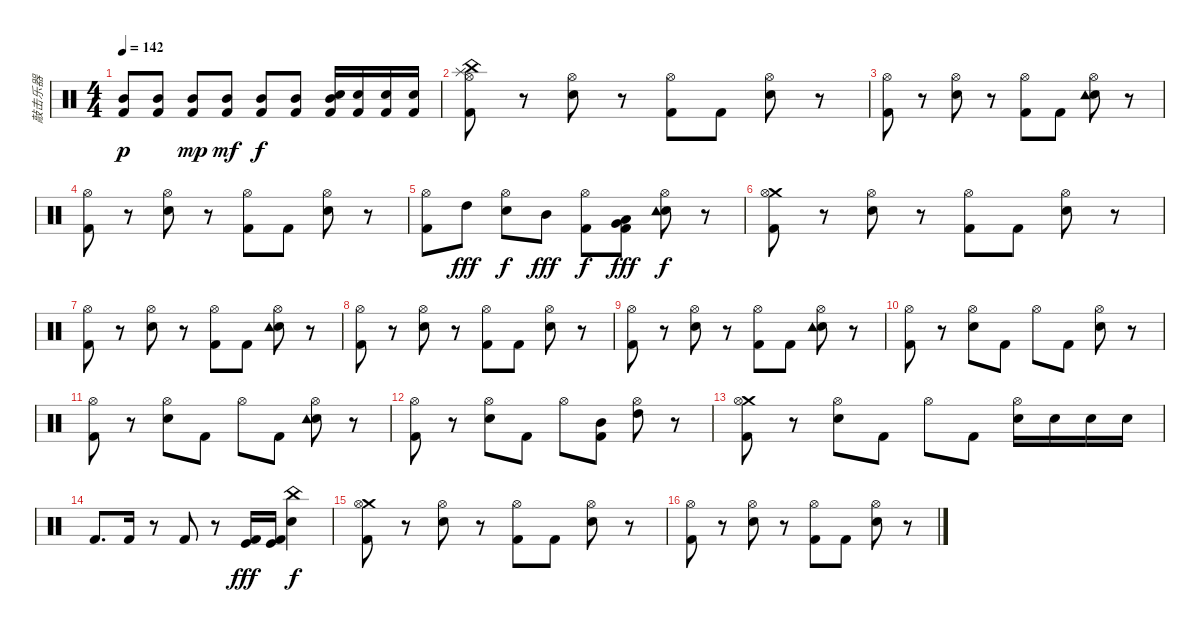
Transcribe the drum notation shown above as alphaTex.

\track ("敲击乐器" "敲击乐器") {instrument percussion}
\staff {score}
\articulation defaults
\ts (4 4)
\tempo 142
\clef neutral
\ks c
("Mid Tom (hit)" "Kick (hit) 2").8{dy p} ("Mid Tom (hit)" "Kick (hit) 2").8 ("Mid Tom (hit)" "Kick (hit) 2").8{dy mp} ("Mid Tom (hit)" "Kick (hit) 2").8{dy mf} ("Mid Tom (hit)" "Kick (hit) 2").8{dy f} ("Mid Tom (hit)" "Kick (hit) 2").8 ("Mid Tom (hit)" "Snare (hit) 2" "Kick (hit) 2").16 ("Snare (hit) 2" "Kick (hit) 2").16 ("Snare (hit) 2" "Kick (hit) 2").16 ("Snare (hit) 2" "Kick (hit) 2").16 |
("China (hit)" "Splash (hit)" "Hi-Hat (open)" "Kick (hit) 2").8 r.8 ("Snare (hit) 2" "Hi-Hat (open)").8 r.8 ("Hi-Hat (open)" "Kick (hit) 2").8 "Kick (hit) 2".8 ("Snare (hit) 2" "Hi-Hat (open)").8 r.8 |
("Hi-Hat (open)" "Kick (hit) 2").8 r.8 ("Snare (hit) 2" "Hi-Hat (open)").8 r.8 ("Hi-Hat (open)" "Kick (hit) 2").8 "Kick (hit) 2".8 ("Snare (hit) 2" "Tambourine (hit)" "Hi-Hat (open)").8 r.8 |
("Hi-Hat (open)" "Kick (hit) 2").8 r.8 ("Snare (hit) 2" "Hi-Hat (open)").8 r.8 ("Hi-Hat (open)" "Kick (hit) 2").8 "Kick (hit) 2".8 ("Snare (hit) 2" "Hi-Hat (open)").8 r.8 |
("Hi-Hat (open)" "Kick (hit) 2").8 "High Tom (hit)".8{dy fff} ("Snare (hit) 2" "Hi-Hat (open)").8{dy f} "Mid Tom (hit)".8{dy fff} ("Hi-Hat (open)" "Kick (hit) 2").8{dy f} ("Very Low Tom (hit)" "Low Floor Tom (hit)" "Kick (hit) 2").8{dy fff} ("Snare (hit) 2" "Tambourine (hit)" "Hi-Hat (open)").8{dy f} r.8 |
("Crash medium (hit)" "Hi-Hat (open)" "Kick (hit) 2").8 r.8 ("Snare (hit) 2" "Hi-Hat (open)").8 r.8 ("Hi-Hat (open)" "Kick (hit) 2").8 "Kick (hit) 2".8 ("Snare (hit) 2" "Hi-Hat (open)").8 r.8 |
("Hi-Hat (open)" "Kick (hit) 2").8 r.8 ("Snare (hit) 2" "Hi-Hat (open)").8 r.8 ("Hi-Hat (open)" "Kick (hit) 2").8 "Kick (hit) 2".8 ("Snare (hit) 2" "Tambourine (hit)" "Hi-Hat (open)").8 r.8 |
("Hi-Hat (open)" "Kick (hit) 2").8 r.8 ("Snare (hit) 2" "Hi-Hat (open)").8 r.8 ("Hi-Hat (open)" "Kick (hit) 2").8 "Kick (hit) 2".8 ("Snare (hit) 2" "Hi-Hat (open)").8 r.8 |
("Hi-Hat (open)" "Kick (hit) 2").8 r.8 ("Snare (hit) 2" "Hi-Hat (open)").8 r.8 ("Hi-Hat (open)" "Kick (hit) 2").8 "Kick (hit) 2".8 ("Snare (hit) 2" "Tambourine (hit)" "Hi-Hat (open)").8 r.8 |
("Hi-Hat (open)" "Kick (hit) 2").8 r.8 ("Snare (hit) 2" "Hi-Hat (open)").8 "Kick (hit) 2".8 "Hi-Hat (open)".8 "Kick (hit) 2".8 ("Snare (hit) 2" "Hi-Hat (open)").8 r.8 |
("Hi-Hat (open)" "Kick (hit) 2").8 r.8 ("Snare (hit) 2" "Hi-Hat (open)").8 "Kick (hit) 2".8 "Hi-Hat (open)".8 "Kick (hit) 2".8 ("Snare (hit) 2" "Tambourine (hit)" "Hi-Hat (open)").8 r.8 |
("Hi-Hat (open)" "Kick (hit) 2").8 r.8 ("Snare (hit) 2" "Hi-Hat (open)").8 "Kick (hit) 2".8 "Hi-Hat (open)".8 ("Mid Tom (hit)" "Kick (hit) 2").8 ("High Tom (hit)" "Hi-Hat (open)").8 r.8 |
("Crash medium (hit)" "Hi-Hat (open)" "Kick (hit) 2").8 r.8 ("Snare (hit) 2" "Hi-Hat (open)").8 "Kick (hit) 2".8 "Hi-Hat (open)".8 "Kick (hit) 2".8 ("Snare (hit) 2" "Hi-Hat (open)").16 "Snare (hit) 2".16 "Snare (hit) 2".16 "Snare (hit) 2".16 |
"Kick (hit) 2".8{d} "Kick (hit) 2".16 r.8 "Kick (hit) 2".8 r.8 ("Kick (hit)" "Kick (hit) 2").16{dy fff} ("Kick (hit)" "Kick (hit) 2").16 ("Snare (hit) 2" "China (hit)").4{dy f} |
("Crash medium (hit)" "Hi-Hat (open)" "Kick (hit) 2").8 r.8 ("Snare (hit) 2" "Hi-Hat (open)").8 r.8 ("Hi-Hat (open)" "Kick (hit) 2").8 "Kick (hit) 2".8 ("Snare (hit) 2" "Hi-Hat (open)").8 r.8 |
("Hi-Hat (open)" "Kick (hit) 2").8 r.8 ("Snare (hit) 2" "Hi-Hat (open)").8 r.8 ("Hi-Hat (open)" "Kick (hit) 2").8 "Kick (hit) 2".8 ("Snare (hit) 2" "Hi-Hat (open)").8 r.8
